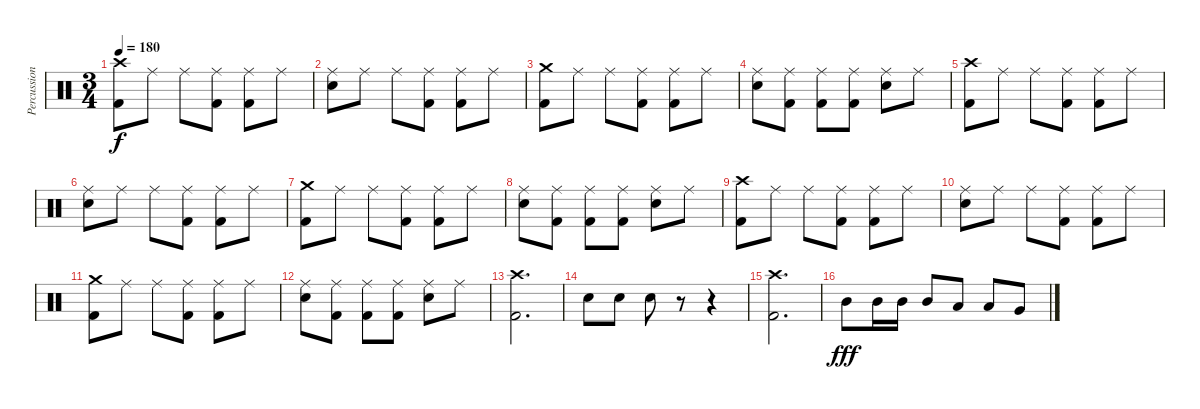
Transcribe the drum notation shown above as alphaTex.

\track ("Percussion" "Percussion") {instrument percussion}
\staff {score}
\articulation defaults
\ts (3 4)
\tempo 180
\clef neutral
\ks c
("Crash high (hit)" "Kick (hit) 2").8{dy f} "Ride (middle)".8 "Ride (middle)".8 ("Ride (middle)" "Kick (hit) 2").8 ("Ride (middle)" "Kick (hit) 2").8 "Ride (middle)".8 |
("Ride (middle)" "Snare (hit) 2").8 "Ride (middle)".8 "Ride (middle)".8 ("Ride (middle)" "Kick (hit) 2").8 ("Ride (middle)" "Kick (hit) 2").8 "Ride (middle)".8 |
("Crash medium (hit)" "Kick (hit) 2").8 "Ride (middle)".8 "Ride (middle)".8 ("Ride (middle)" "Kick (hit) 2").8 ("Ride (middle)" "Kick (hit) 2").8 "Ride (middle)".8 |
("Ride (middle)" "Snare (hit) 2").8 ("Ride (middle)" "Kick (hit) 2").8 ("Ride (middle)" "Kick (hit) 2").8 ("Ride (middle)" "Kick (hit) 2").8 ("Ride (middle)" "Snare (hit) 2").8 "Ride (middle)".8 |
("Crash high (hit)" "Kick (hit) 2").8 "Ride (middle)".8 "Ride (middle)".8 ("Ride (middle)" "Kick (hit) 2").8 ("Ride (middle)" "Kick (hit) 2").8 "Ride (middle)".8 |
("Ride (middle)" "Snare (hit) 2").8 "Ride (middle)".8 "Ride (middle)".8 ("Ride (middle)" "Kick (hit) 2").8 ("Ride (middle)" "Kick (hit) 2").8 "Ride (middle)".8 |
("Crash medium (hit)" "Kick (hit) 2").8 "Ride (middle)".8 "Ride (middle)".8 ("Ride (middle)" "Kick (hit) 2").8 ("Ride (middle)" "Kick (hit) 2").8 "Ride (middle)".8 |
("Ride (middle)" "Snare (hit) 2").8 ("Ride (middle)" "Kick (hit) 2").8 ("Ride (middle)" "Kick (hit) 2").8 ("Ride (middle)" "Kick (hit) 2").8 ("Ride (middle)" "Snare (hit) 2").8 "Ride (middle)".8 |
("Crash high (hit)" "Kick (hit) 2").8 "Ride (middle)".8 "Ride (middle)".8 ("Ride (middle)" "Kick (hit) 2").8 ("Ride (middle)" "Kick (hit) 2").8 "Ride (middle)".8 |
("Ride (middle)" "Snare (hit) 2").8 "Ride (middle)".8 "Ride (middle)".8 ("Ride (middle)" "Kick (hit) 2").8 ("Ride (middle)" "Kick (hit) 2").8 "Ride (middle)".8 |
("Crash medium (hit)" "Kick (hit) 2").8 "Ride (middle)".8 "Ride (middle)".8 ("Ride (middle)" "Kick (hit) 2").8 ("Ride (middle)" "Kick (hit) 2").8 "Ride (middle)".8 |
("Ride (middle)" "Snare (hit) 2").8 ("Ride (middle)" "Kick (hit) 2").8 ("Ride (middle)" "Kick (hit) 2").8 ("Ride (middle)" "Kick (hit) 2").8 ("Ride (middle)" "Snare (hit) 2").8 "Ride (middle)".8 |
("Crash high (hit)" "Kick (hit) 2").2{d} |
"Snare (hit) 2".8 "Snare (hit) 2".8 "Snare (hit) 2".8 r.8 r.4 |
("Crash high (hit)" "Kick (hit) 2").2{d} |
"Mid Tom (hit)".8{dy fff} "Mid Tom (hit)".16 "Mid Tom (hit)".16 "Mid Tom (hit)".8 "Low Tom (hit)".8 "Low Tom (hit)".8 "Very Low Tom (hit)".8
